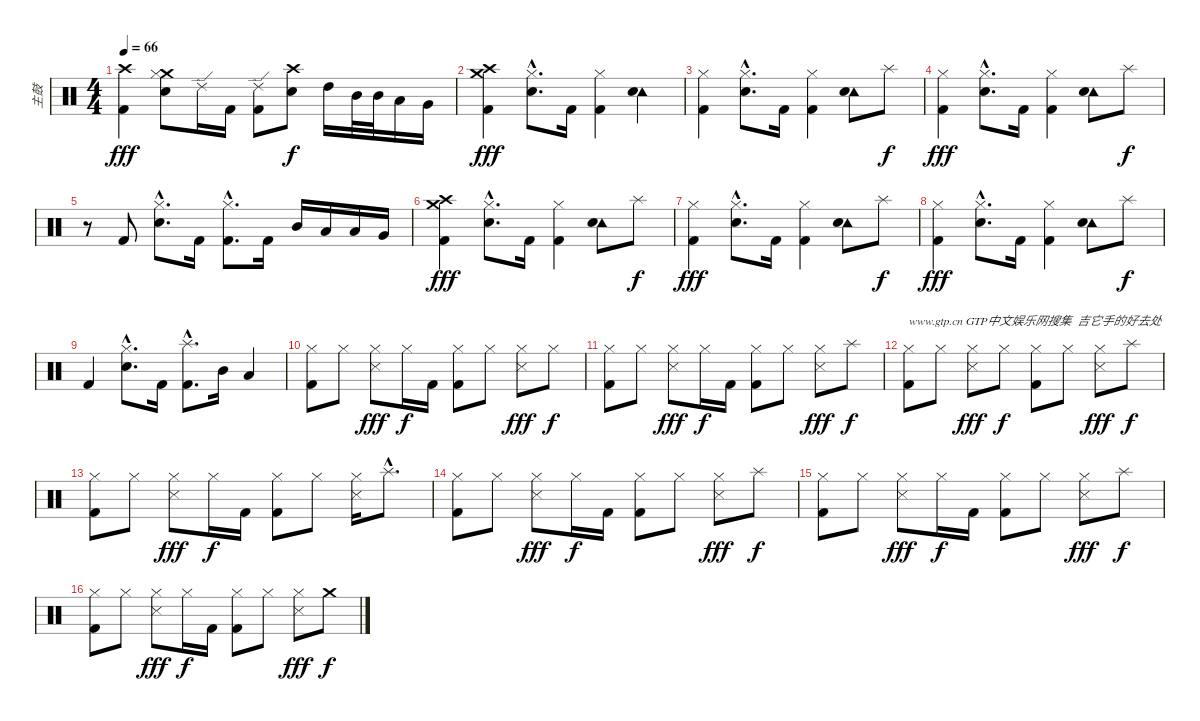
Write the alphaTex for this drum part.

\track ("主鼓" "主鼓") {instrument percussion}
\staff {score}
\articulation defaults
\ts (4 4)
\tempo 66
\clef neutral
\ks c
("Crash high (hit)" "Kick (hit) 2").4{dy fff} ("Crash medium (hit)" "Hi-Hat (closed)" "Snare (hit) 2").8 "Ride (edge) 2".16 "Kick (hit) 2".16 ("Ride (edge) 2" "Kick (hit) 2").8 ("Crash high (hit)" "Snare (hit) 2").8{dy f} "High Tom (hit)".16 "Mid Tom (hit)".32 "Mid Tom (hit)".32 "Low Tom (hit)".16 "Very Low Tom (hit)".16 |
("Crash high (hit)" "Crash medium (hit)" "Kick (hit) 2").4{dy fff volume 16 balance 5} ("Hi-Hat (closed)"{hac} "Snare (hit) 2"{hac}).8{d} "Kick (hit) 2".16 ("Hi-Hat (closed)" "Kick (hit) 2").4 ("Tambourine (hit)" "Snare (hit) 2").4 |
("Hi-Hat (closed)" "Kick (hit) 2").4 ("Hi-Hat (closed)"{hac} "Snare (hit) 2"{hac}).8{d} "Kick (hit) 2".16 ("Hi-Hat (closed)" "Kick (hit) 2").4 ("Tambourine (hit)" "Snare (hit) 2").8 "Splash (hit)".8{dy f} |
("Hi-Hat (closed)" "Kick (hit) 2").4{dy fff} ("Hi-Hat (closed)"{hac} "Snare (hit) 2"{hac}).8{d} "Kick (hit) 2".16 ("Hi-Hat (closed)" "Kick (hit) 2").4 ("Tambourine (hit)" "Snare (hit) 2").8 "Splash (hit)".8{dy f} |
r.8 "Kick (hit) 2".8 ("Hi-Hat (closed)"{hac} "Snare (hit) 2"{hac}).8{d} "Kick (hit) 2".16 ("Hi-Hat (closed)"{hac} "Kick (hit) 2"{hac}).8{d} "Kick (hit) 2".16 "Mid Tom (hit)".16 "Low Tom (hit)".16 "Low Tom (hit)".16 "Very Low Tom (hit)".16 |
("Crash high (hit)" "Crash medium (hit)" "Kick (hit) 2").4{dy fff} ("Hi-Hat (closed)"{hac} "Snare (hit) 2").8{d} "Kick (hit) 2".16 ("Hi-Hat (closed)" "Kick (hit) 2").4 ("Tambourine (hit)" "Snare (hit) 2").8 "Splash (hit)".8{dy f} |
("Hi-Hat (closed)" "Kick (hit) 2").4{dy fff} ("Hi-Hat (closed)"{hac} "Snare (hit) 2"{hac}).8{d} "Kick (hit) 2".16 ("Hi-Hat (closed)" "Kick (hit) 2").4 ("Tambourine (hit)" "Snare (hit) 2").8 "Splash (hit)".8{dy f} |
("Hi-Hat (closed)" "Kick (hit) 2").4{dy fff} ("Hi-Hat (closed)"{hac} "Snare (hit) 2"{hac}).8{d} "Kick (hit) 2".16 ("Hi-Hat (closed)" "Kick (hit) 2").4 ("Tambourine (hit)" "Snare (hit) 2").8 "Splash (hit)".8{dy f} |
"Kick (hit) 2".4 ("Hi-Hat (closed)"{hac} "Snare (hit) 2"{hac}).8{d} "Kick (hit) 2".16 ("Splash (hit)"{hac} "Kick (hit) 2"{hac}).8{d} "Mid Tom (hit)".16 "Low Tom (hit)".4 |
("Hi-Hat (closed)" "Kick (hit) 2").8 "Hi-Hat (closed)".8 ("Hi-Hat (closed)" "Snare (side stick) 3").8{dy fff} "Hi-Hat (closed)".16{dy f} "Kick (hit) 2".16 ("Hi-Hat (closed)" "Kick (hit) 2").8 "Hi-Hat (closed)".8 ("Hi-Hat (closed)" "Snare (side stick) 3").8{dy fff} "Hi-Hat (closed)".8{dy f} |
("Hi-Hat (closed)" "Kick (hit) 2").8 "Hi-Hat (closed)".8 ("Hi-Hat (closed)" "Snare (side stick) 3").8{dy fff} "Hi-Hat (closed)".16{dy f} "Kick (hit) 2".16 ("Hi-Hat (closed)" "Kick (hit) 2").8 "Hi-Hat (closed)".8 ("Hi-Hat (closed)" "Snare (side stick) 3").8{dy fff} "Splash (hit)".8{dy f} |
("Hi-Hat (closed)" "Kick (hit) 2").8{txt "www.gtp.cn GTP中文娱乐网搜集  吉它手的好去处"} "Hi-Hat (closed)".8 ("Hi-Hat (closed)" "Snare (side stick) 3").8{dy fff} "Hi-Hat (closed)".8{dy f} ("Hi-Hat (closed)" "Kick (hit) 2").8 "Hi-Hat (closed)".8 ("Hi-Hat (closed)" "Snare (side stick) 3").8{dy fff} "Splash (hit)".8{dy f} |
("Hi-Hat (closed)" "Kick (hit) 2").8 "Hi-Hat (closed)".8 ("Hi-Hat (closed)" "Snare (side stick) 3").8{dy fff} "Hi-Hat (closed)".16{dy f} "Kick (hit) 2".16 ("Hi-Hat (closed)" "Kick (hit) 2").8 "Hi-Hat (closed)".8 ("Hi-Hat (closed)" "Snare (side stick) 3").16 "Splash (hit)"{hac}.8{d} |
("Hi-Hat (closed)" "Kick (hit) 2").8 "Hi-Hat (closed)".8 ("Hi-Hat (closed)" "Snare (side stick) 3").8{dy fff} "Hi-Hat (closed)".16{dy f} "Kick (hit) 2".16 ("Hi-Hat (closed)" "Kick (hit) 2").8 "Hi-Hat (closed)".8 ("Hi-Hat (closed)" "Snare (side stick) 3").8{dy fff} "Splash (hit)".8{dy f} |
("Hi-Hat (closed)" "Kick (hit) 2").8 "Hi-Hat (closed)".8 ("Hi-Hat (closed)" "Snare (side stick) 3").8{dy fff} "Hi-Hat (closed)".16{dy f} "Kick (hit) 2".16 ("Hi-Hat (closed)" "Kick (hit) 2").8 "Hi-Hat (closed)".8 ("Hi-Hat (closed)" "Snare (side stick) 3").8{dy fff} "Splash (hit)".8{dy f} |
("Hi-Hat (closed)" "Kick (hit) 2").8 "Hi-Hat (closed)".8 ("Hi-Hat (closed)" "Snare (side stick) 3").8{dy fff} "Hi-Hat (closed)".16{dy f} "Kick (hit) 2".16 ("Hi-Hat (closed)" "Kick (hit) 2").8 "Hi-Hat (closed)".8 ("Hi-Hat (closed)" "Snare (side stick) 3").8{dy fff} "Crash medium (hit)".8{dy f}
